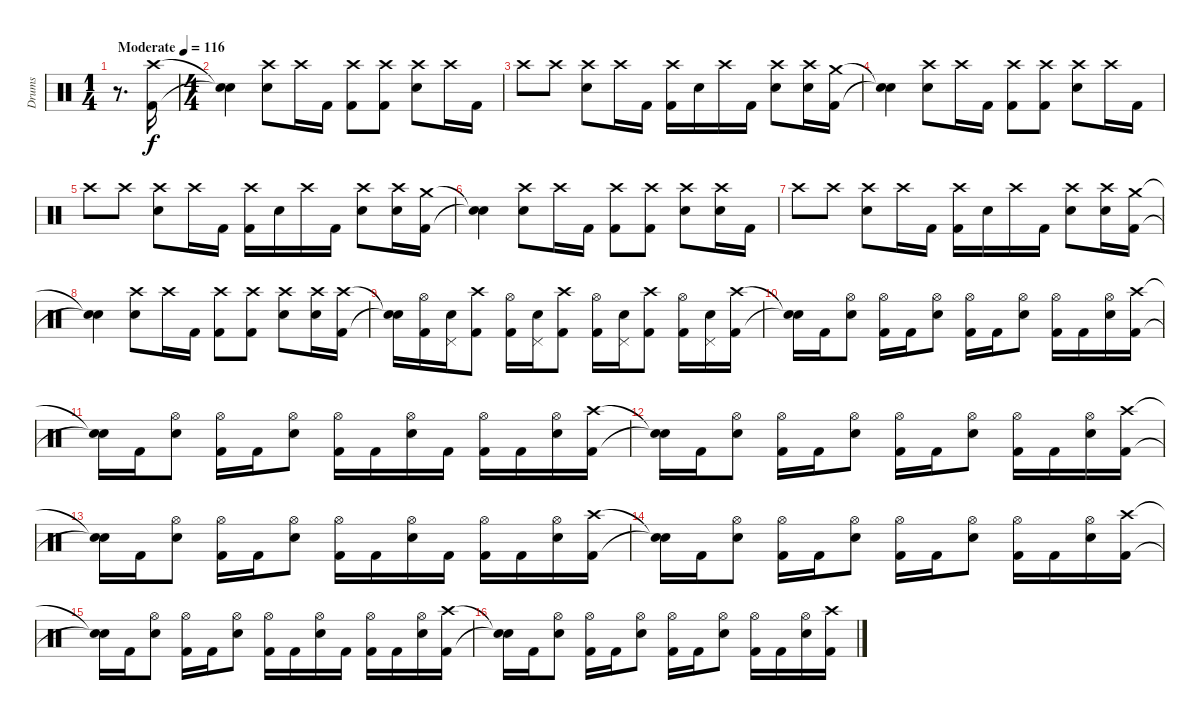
\track ("Drums" "Drums") {instrument percussion}
\staff {score}
\articulation defaults
\ts (1 4)
\tempo (116 "Moderate")
\clef neutral
\ks c
r.8{d dy f} ("Crash high (hit)" "Kick (hit) 2").16 |
\ts (4 4)
("Snare (hit)"{t} "Snare (hit)"{t}).4 ("Crash high (hit)" "Electric Snare (hit)").8 "Crash high (hit)".16 "Kick (hit) 2".16 ("Crash high (hit)" "Kick (hit) 2").8 ("Crash high (hit)" "Kick (hit) 2").8 ("Crash high (hit)" "Electric Snare (hit)").8 "Crash high (hit)".16 "Kick (hit) 2".16 |
"Crash high (hit)".8 "Crash high (hit)".8 ("Crash high (hit)" "Electric Snare (hit)").8 "Crash high (hit)".16 "Kick (hit) 2".16 ("Crash high (hit)" "Kick (hit) 2").16 "Electric Snare (hit)".16 "Crash high (hit)".16 "Kick (hit) 2".16 ("Crash high (hit)" "Electric Snare (hit)").8 ("Crash high (hit)" "Electric Snare (hit)").16 ("Crash medium (hit)" "Kick (hit) 2").16 |
("Snare (hit)"{t} "Snare (hit)"{t}).4 ("Crash high (hit)" "Electric Snare (hit)").8 "Crash high (hit)".16 "Kick (hit) 2".16 ("Crash high (hit)" "Kick (hit) 2").8 ("Crash high (hit)" "Kick (hit) 2").8 ("Crash high (hit)" "Electric Snare (hit)").8 "Crash high (hit)".16 "Kick (hit) 2".16 |
"Crash high (hit)".8 "Crash high (hit)".8 ("Crash high (hit)" "Electric Snare (hit)").8 "Crash high (hit)".16 "Kick (hit) 2".16 ("Crash high (hit)" "Kick (hit) 2").16 "Electric Snare (hit)".16 "Crash high (hit)".16 "Kick (hit) 2".16 ("Crash high (hit)" "Electric Snare (hit)").8 ("Crash high (hit)" "Electric Snare (hit)").16 ("Crash medium (hit)" "Kick (hit) 2").16 |
("Snare (hit)"{t} "Snare (hit)"{t}).4 ("Crash high (hit)" "Electric Snare (hit)").8 "Crash high (hit)".16 "Kick (hit) 2".16 ("Crash high (hit)" "Kick (hit) 2").8 ("Crash high (hit)" "Kick (hit) 2").8 ("Crash high (hit)" "Electric Snare (hit)").8 ("Crash high (hit)" "Electric Snare (hit)").16 "Kick (hit) 2".16 |
"Crash high (hit)".8 "Crash high (hit)".8 ("Crash high (hit)" "Electric Snare (hit)").8 "Crash high (hit)".16 "Kick (hit) 2".16 ("Crash high (hit)" "Kick (hit) 2").16 "Electric Snare (hit)".16 "Crash high (hit)".16 "Kick (hit) 2".16 ("Crash high (hit)" "Electric Snare (hit)").8 ("Crash high (hit)" "Electric Snare (hit)").16 ("Crash medium (hit)" "Kick (hit) 2").16 |
("Snare (hit)"{t} "Snare (hit)"{t}).4 ("Crash high (hit)" "Electric Snare (hit)").8 "Crash high (hit)".16 "Kick (hit) 2".16 ("Crash high (hit)" "Kick (hit) 2").8 ("Crash high (hit)" "Kick (hit) 2").8 ("Crash high (hit)" "Electric Snare (hit)").8 ("Crash high (hit)" "Electric Snare (hit)").16 ("Crash high (hit)" "Kick (hit) 2").16 |
("Snare (hit)"{t} "Snare (hit)"{t}).16 ("Hi-Hat (open)" "Kick (hit) 2").16 ("Pedal Hi-Hat (hit)" "Electric Snare (hit)").16 ("Crash high (hit)" "Kick (hit) 2").8 ("Hi-Hat (open)" "Kick (hit) 2").16 ("Pedal Hi-Hat (hit)" "Electric Snare (hit)").16 ("Crash high (hit)" "Kick (hit) 2").8 ("Hi-Hat (open)" "Kick (hit) 2").16 ("Pedal Hi-Hat (hit)" "Electric Snare (hit)").16 ("Crash high (hit)" "Kick (hit) 2").8 ("Hi-Hat (open)" "Kick (hit) 2").16 ("Pedal Hi-Hat (hit)" "Electric Snare (hit)").16 ("Crash high (hit)" "Kick (hit) 2").16 |
("Snare (hit)"{t} "Snare (hit)"{t}).16 "Kick (hit) 2".16 ("Hi-Hat (open)" "Electric Snare (hit)").8 ("Hi-Hat (open)" "Kick (hit) 2").16 "Kick (hit) 2".16 ("Hi-Hat (open)" "Electric Snare (hit)").8 ("Hi-Hat (open)" "Kick (hit) 2").16 "Kick (hit) 2".16 ("Hi-Hat (open)" "Electric Snare (hit)").8 ("Hi-Hat (open)" "Kick (hit) 2").16 "Kick (hit) 2".16 ("Hi-Hat (open)" "Electric Snare (hit)").16 ("Crash high (hit)" "Kick (hit) 2").16 |
("Snare (hit)"{t} "Snare (hit)"{t}).16 "Kick (hit) 2".16 ("Hi-Hat (open)" "Electric Snare (hit)").8 ("Hi-Hat (open)" "Kick (hit) 2").16 "Kick (hit) 2".16 ("Hi-Hat (open)" "Electric Snare (hit)").8 ("Hi-Hat (open)" "Kick (hit) 2").16 "Kick (hit) 2".16 ("Hi-Hat (open)" "Electric Snare (hit)").16 "Kick (hit) 2".16 ("Hi-Hat (open)" "Kick (hit) 2").16 "Kick (hit) 2".16 ("Hi-Hat (open)" "Electric Snare (hit)").16 ("Crash high (hit)" "Kick (hit) 2").16 |
("Snare (hit)"{t} "Snare (hit)"{t}).16 "Kick (hit) 2".16 ("Hi-Hat (open)" "Electric Snare (hit)").8 ("Hi-Hat (open)" "Kick (hit) 2").16 "Kick (hit) 2".16 ("Hi-Hat (open)" "Electric Snare (hit)").8 ("Hi-Hat (open)" "Kick (hit) 2").16 "Kick (hit) 2".16 ("Hi-Hat (open)" "Electric Snare (hit)").8 ("Hi-Hat (open)" "Kick (hit) 2").16 "Kick (hit) 2".16 ("Hi-Hat (open)" "Electric Snare (hit)").16 ("Crash high (hit)" "Kick (hit) 2").16 |
("Snare (hit)"{t} "Snare (hit)"{t}).16 "Kick (hit) 2".16 ("Hi-Hat (open)" "Electric Snare (hit)").8 ("Hi-Hat (open)" "Kick (hit) 2").16 "Kick (hit) 2".16 ("Hi-Hat (open)" "Electric Snare (hit)").8 ("Hi-Hat (open)" "Kick (hit) 2").16 "Kick (hit) 2".16 ("Hi-Hat (open)" "Electric Snare (hit)").16 "Kick (hit) 2".16 ("Hi-Hat (open)" "Kick (hit) 2").16 "Kick (hit) 2".16 ("Hi-Hat (open)" "Electric Snare (hit)").16 ("Crash high (hit)" "Kick (hit) 2").16 |
("Snare (hit)"{t} "Snare (hit)"{t}).16 "Kick (hit) 2".16 ("Hi-Hat (open)" "Electric Snare (hit)").8 ("Hi-Hat (open)" "Kick (hit) 2").16 "Kick (hit) 2".16 ("Hi-Hat (open)" "Electric Snare (hit)").8 ("Hi-Hat (open)" "Kick (hit) 2").16 "Kick (hit) 2".16 ("Hi-Hat (open)" "Electric Snare (hit)").8 ("Hi-Hat (open)" "Kick (hit) 2").16 "Kick (hit) 2".16 ("Hi-Hat (open)" "Electric Snare (hit)").16 ("Crash high (hit)" "Kick (hit) 2").16 |
("Snare (hit)"{t} "Snare (hit)"{t}).16 "Kick (hit) 2".16 ("Hi-Hat (open)" "Electric Snare (hit)").8 ("Hi-Hat (open)" "Kick (hit) 2").16 "Kick (hit) 2".16 ("Hi-Hat (open)" "Electric Snare (hit)").8 ("Hi-Hat (open)" "Kick (hit) 2").16 "Kick (hit) 2".16 ("Hi-Hat (open)" "Electric Snare (hit)").16 "Kick (hit) 2".16 ("Hi-Hat (open)" "Kick (hit) 2").16 "Kick (hit) 2".16 ("Hi-Hat (open)" "Electric Snare (hit)").16 ("Crash high (hit)" "Kick (hit) 2").16 |
("Snare (hit)"{t} "Snare (hit)"{t}).16 "Kick (hit) 2".16 ("Hi-Hat (open)" "Electric Snare (hit)").8 ("Hi-Hat (open)" "Kick (hit) 2").16 "Kick (hit) 2".16 ("Hi-Hat (open)" "Electric Snare (hit)").8 ("Hi-Hat (open)" "Kick (hit) 2").16 "Kick (hit) 2".16 ("Hi-Hat (open)" "Electric Snare (hit)").8 ("Hi-Hat (open)" "Kick (hit) 2").16 "Kick (hit) 2".16 ("Hi-Hat (open)" "Electric Snare (hit)").16 ("Crash high (hit)" "Kick (hit) 2").16
